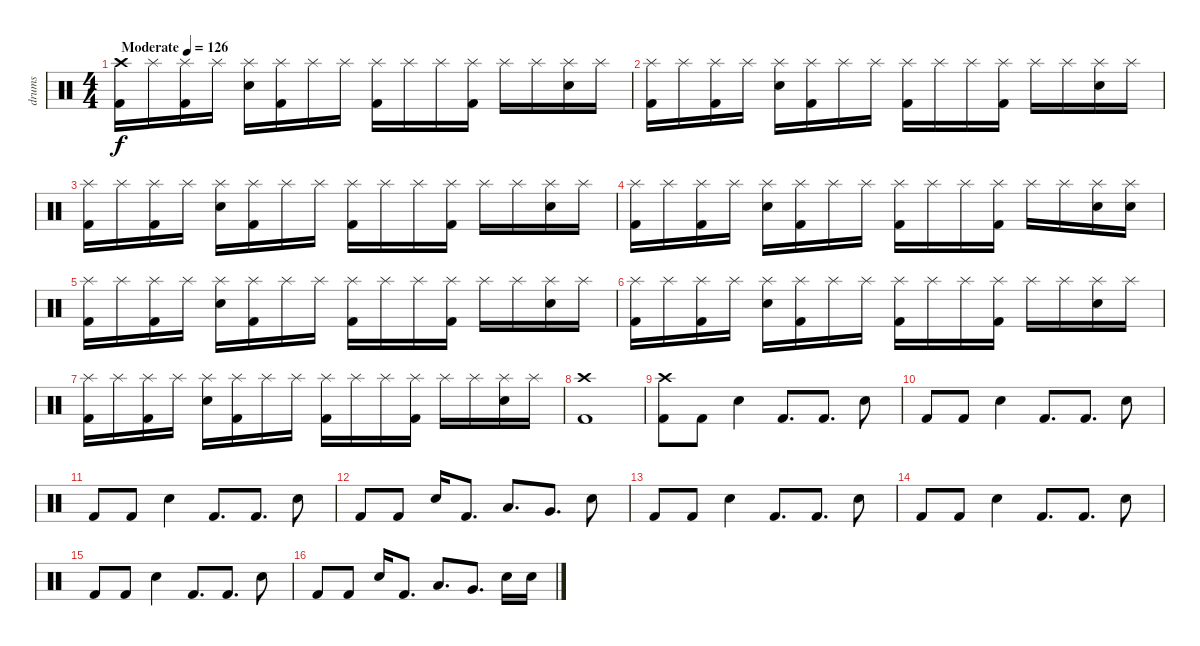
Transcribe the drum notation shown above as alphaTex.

\track ("drums" "drums") {instrument percussion}
\staff {score}
\articulation defaults
\ts (4 4)
\tempo (126 "Moderate")
\clef neutral
\ks c
("Crash high (hit)" "Kick (hit) 2").16{dy f} "Splash (hit)".16 ("Splash (hit)" "Kick (hit) 2").16 "Splash (hit)".16 ("Splash (hit)" "Snare (hit) 2").16 ("Splash (hit)" "Kick (hit) 2").16 "Splash (hit)".16 "Splash (hit)".16 ("Splash (hit)" "Kick (hit) 2").16 "Splash (hit)".16 "Splash (hit)".16 ("Splash (hit)" "Kick (hit) 2").16 "Splash (hit)".16 "Splash (hit)".16 ("Splash (hit)" "Snare (hit) 2").16 "Splash (hit)".16 |
("Splash (hit)" "Kick (hit) 2").16 "Splash (hit)".16 ("Splash (hit)" "Kick (hit) 2").16 "Splash (hit)".16 ("Splash (hit)" "Snare (hit) 2").16 ("Splash (hit)" "Kick (hit) 2").16 "Splash (hit)".16 "Splash (hit)".16 ("Splash (hit)" "Kick (hit) 2").16 "Splash (hit)".16 "Splash (hit)".16 ("Splash (hit)" "Kick (hit) 2").16 "Splash (hit)".16 "Splash (hit)".16 ("Splash (hit)" "Snare (hit) 2").16 "Splash (hit)".16 |
("Splash (hit)" "Kick (hit) 2").16 "Splash (hit)".16 ("Splash (hit)" "Kick (hit) 2").16 "Splash (hit)".16 ("Splash (hit)" "Snare (hit) 2").16 ("Splash (hit)" "Kick (hit) 2").16 "Splash (hit)".16 "Splash (hit)".16 ("Splash (hit)" "Kick (hit) 2").16 "Splash (hit)".16 "Splash (hit)".16 ("Splash (hit)" "Kick (hit) 2").16 "Splash (hit)".16 "Splash (hit)".16 ("Splash (hit)" "Snare (hit) 2").16 "Splash (hit)".16 |
("Splash (hit)" "Kick (hit) 2").16 "Splash (hit)".16 ("Splash (hit)" "Kick (hit) 2").16 "Splash (hit)".16 ("Splash (hit)" "Snare (hit) 2").16 ("Splash (hit)" "Kick (hit) 2").16 "Splash (hit)".16 "Splash (hit)".16 ("Splash (hit)" "Kick (hit) 2").16 "Splash (hit)".16 "Splash (hit)".16 ("Splash (hit)" "Kick (hit) 2").16 "Splash (hit)".16 "Splash (hit)".16 ("Splash (hit)" "Snare (hit) 2").16 ("Splash (hit)" "Snare (hit) 2").16 |
("Splash (hit)" "Kick (hit) 2").16 "Splash (hit)".16 ("Splash (hit)" "Kick (hit) 2").16 "Splash (hit)".16 ("Splash (hit)" "Snare (hit) 2").16 ("Splash (hit)" "Kick (hit) 2").16 "Splash (hit)".16 "Splash (hit)".16 ("Splash (hit)" "Kick (hit) 2").16 "Splash (hit)".16 "Splash (hit)".16 ("Splash (hit)" "Kick (hit) 2").16 "Splash (hit)".16 "Splash (hit)".16 ("Splash (hit)" "Snare (hit) 2").16 "Splash (hit)".16 |
("Splash (hit)" "Kick (hit) 2").16 "Splash (hit)".16 ("Splash (hit)" "Kick (hit) 2").16 "Splash (hit)".16 ("Splash (hit)" "Snare (hit) 2").16 ("Splash (hit)" "Kick (hit) 2").16 "Splash (hit)".16 "Splash (hit)".16 ("Splash (hit)" "Kick (hit) 2").16 "Splash (hit)".16 "Splash (hit)".16 ("Splash (hit)" "Kick (hit) 2").16 "Splash (hit)".16 "Splash (hit)".16 ("Splash (hit)" "Snare (hit) 2").16 "Splash (hit)".16 |
("Splash (hit)" "Kick (hit) 2").16 "Splash (hit)".16 ("Splash (hit)" "Kick (hit) 2").16 "Splash (hit)".16 ("Splash (hit)" "Snare (hit) 2").16 ("Splash (hit)" "Kick (hit) 2").16 "Splash (hit)".16 "Splash (hit)".16 ("Splash (hit)" "Kick (hit) 2").16 "Splash (hit)".16 "Splash (hit)".16 ("Splash (hit)" "Kick (hit) 2").16 "Splash (hit)".16 "Splash (hit)".16 ("Splash (hit)" "Snare (hit) 2").16 "Splash (hit)".16 |
("Kick (hit) 2" "Crash high (hit)").1 |
("Kick (hit) 2" "Crash high (hit)").8 "Kick (hit) 2".8 "Snare (hit) 2".4 "Kick (hit) 2".8{d} "Kick (hit) 2".8{d} "Snare (hit) 2".8 |
"Kick (hit) 2".8 "Kick (hit) 2".8 "Snare (hit) 2".4 "Kick (hit) 2".8{d} "Kick (hit) 2".8{d} "Snare (hit) 2".8 |
"Kick (hit) 2".8 "Kick (hit) 2".8 "Snare (hit) 2".4 "Kick (hit) 2".8{d} "Kick (hit) 2".8{d} "Snare (hit) 2".8 |
"Kick (hit) 2".8 "Kick (hit) 2".8 "Snare (hit) 2".16 "Kick (hit) 2".8{d} "Low Tom (hit)".8{d} "Very Low Tom (hit)".8{d} "Snare (hit) 2".8 |
"Kick (hit) 2".8 "Kick (hit) 2".8 "Snare (hit) 2".4 "Kick (hit) 2".8{d} "Kick (hit) 2".8{d} "Snare (hit) 2".8 |
"Kick (hit) 2".8 "Kick (hit) 2".8 "Snare (hit) 2".4 "Kick (hit) 2".8{d} "Kick (hit) 2".8{d} "Snare (hit) 2".8 |
"Kick (hit) 2".8 "Kick (hit) 2".8 "Snare (hit) 2".4 "Kick (hit) 2".8{d} "Kick (hit) 2".8{d} "Snare (hit) 2".8 |
"Kick (hit) 2".8 "Kick (hit) 2".8 "Snare (hit) 2".16 "Kick (hit) 2".8{d} "Low Tom (hit)".8{d} "Very Low Tom (hit)".8{d} "Snare (hit) 2".16 "Snare (hit) 2".16
